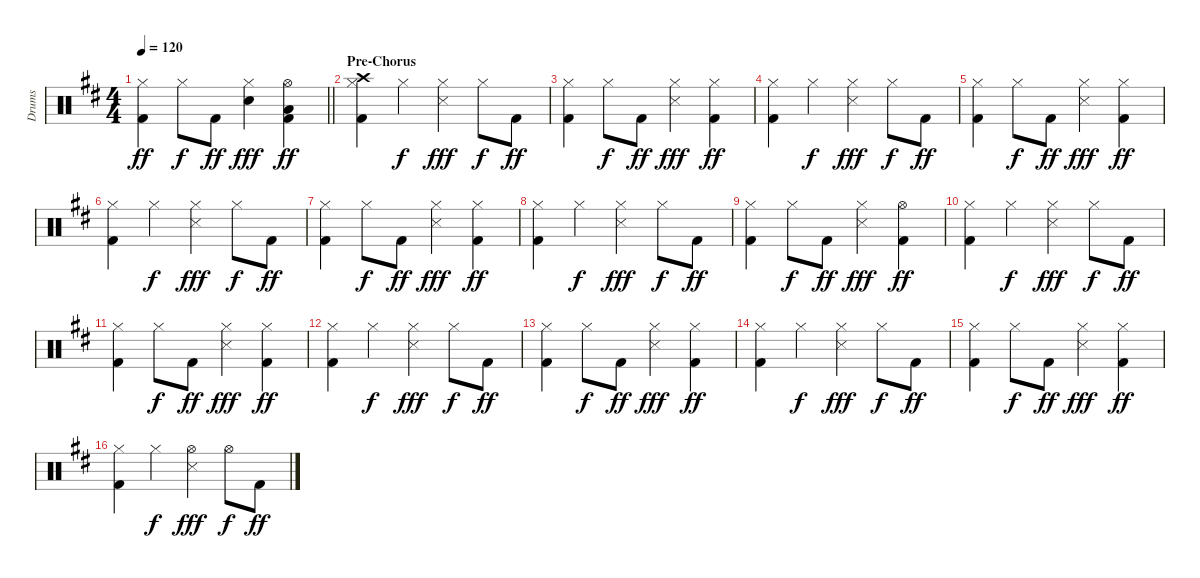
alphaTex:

\track ("Drums" "Drums") {instrument percussion}
\staff {score}
\articulation defaults
\ts (4 4)
\tempo 120
\clef neutral
\barLineRight lightlight
\ks d
("Kick (hit) 2" "Hi-Hat (closed)").4{dy ff} "Hi-Hat (closed)".8{dy f} "Kick (hit) 2".8{dy ff} ("Snare (hit) 2" "Hi-Hat (closed)").4{dy fff} ("Kick (hit) 2" "Low Tom (hit)" "Hi-Hat (open)").4{dy ff} |
\section ("" "Pre-Chorus")
("Kick (hit) 2" "Hi-Hat (closed)" "Crash high (hit)").4 "Hi-Hat (closed)".4{dy f} ("Snare (side stick) 3" "Hi-Hat (closed)").4{dy fff} "Hi-Hat (closed)".8{dy f} "Kick (hit) 2".8{dy ff} |
("Kick (hit) 2" "Hi-Hat (closed)").4 "Hi-Hat (closed)".8{dy f} "Kick (hit) 2".8{dy ff} ("Snare (side stick) 3" "Hi-Hat (closed)").4{dy fff} ("Kick (hit) 2" "Hi-Hat (closed)").4{dy ff} |
("Kick (hit) 2" "Hi-Hat (closed)").4 "Hi-Hat (closed)".4{dy f} ("Snare (side stick) 3" "Hi-Hat (closed)").4{dy fff} "Hi-Hat (closed)".8{dy f} "Kick (hit) 2".8{dy ff} |
("Kick (hit) 2" "Hi-Hat (closed)").4 "Hi-Hat (closed)".8{dy f} "Kick (hit) 2".8{dy ff} ("Snare (side stick) 3" "Hi-Hat (closed)").4{dy fff} ("Kick (hit) 2" "Hi-Hat (closed)").4{dy ff} |
("Kick (hit) 2" "Hi-Hat (closed)").4 "Hi-Hat (closed)".4{dy f} ("Snare (side stick) 3" "Hi-Hat (closed)").4{dy fff} "Hi-Hat (closed)".8{dy f} "Kick (hit) 2".8{dy ff} |
("Kick (hit) 2" "Hi-Hat (closed)").4 "Hi-Hat (closed)".8{dy f} "Kick (hit) 2".8{dy ff} ("Snare (side stick) 3" "Hi-Hat (closed)").4{dy fff} ("Kick (hit) 2" "Hi-Hat (closed)").4{dy ff} |
("Kick (hit) 2" "Hi-Hat (closed)").4 "Hi-Hat (closed)".4{dy f} ("Snare (side stick) 3" "Hi-Hat (closed)").4{dy fff} "Hi-Hat (closed)".8{dy f} "Kick (hit) 2".8{dy ff} |
("Kick (hit) 2" "Hi-Hat (closed)").4 "Hi-Hat (closed)".8{dy f} "Kick (hit) 2".8{dy ff} ("Snare (side stick) 3" "Hi-Hat (closed)").4{dy fff} ("Kick (hit) 2" "Hi-Hat (open)").4{dy ff} |
("Kick (hit) 2" "Hi-Hat (closed)").4 "Hi-Hat (closed)".4{dy f} ("Snare (side stick) 3" "Hi-Hat (closed)").4{dy fff} "Hi-Hat (closed)".8{dy f} "Kick (hit) 2".8{dy ff} |
("Kick (hit) 2" "Hi-Hat (closed)").4 "Hi-Hat (closed)".8{dy f} "Kick (hit) 2".8{dy ff} ("Snare (side stick) 3" "Hi-Hat (closed)").4{dy fff} ("Kick (hit) 2" "Hi-Hat (closed)").4{dy ff} |
("Kick (hit) 2" "Hi-Hat (closed)").4 "Hi-Hat (closed)".4{dy f} ("Snare (side stick) 3" "Hi-Hat (closed)").4{dy fff} "Hi-Hat (closed)".8{dy f} "Kick (hit) 2".8{dy ff} |
("Kick (hit) 2" "Hi-Hat (closed)").4 "Hi-Hat (closed)".8{dy f} "Kick (hit) 2".8{dy ff} ("Snare (side stick) 3" "Hi-Hat (closed)").4{dy fff} ("Kick (hit) 2" "Hi-Hat (closed)").4{dy ff} |
("Kick (hit) 2" "Hi-Hat (closed)").4 "Hi-Hat (closed)".4{dy f} ("Snare (side stick) 3" "Hi-Hat (closed)").4{dy fff} "Hi-Hat (closed)".8{dy f} "Kick (hit) 2".8{dy ff} |
("Kick (hit) 2" "Hi-Hat (closed)").4 "Hi-Hat (closed)".8{dy f} "Kick (hit) 2".8{dy ff} ("Snare (side stick) 3" "Hi-Hat (closed)").4{dy fff} ("Kick (hit) 2" "Hi-Hat (closed)").4{dy ff} |
("Kick (hit) 2" "Hi-Hat (closed)").4 "Hi-Hat (closed)".4{dy f} ("Snare (side stick) 3" "Hi-Hat (open)").4{dy fff} "Hi-Hat (open)".8{dy f} "Kick (hit) 2".8{dy ff}
